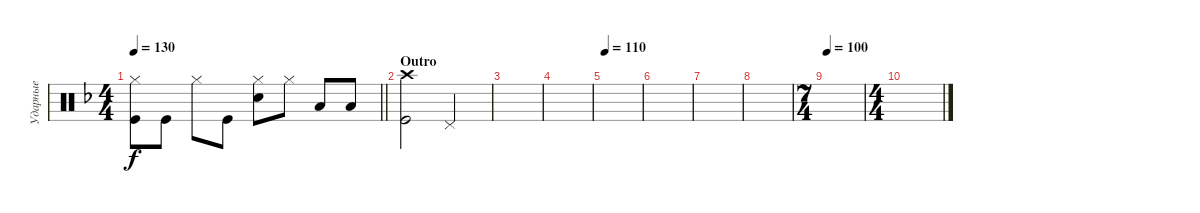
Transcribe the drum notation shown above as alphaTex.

\track ("Ударные" "Ударные") {instrument percussion}
\staff {score}
\articulation defaults
\ts (4 4)
\tempo 130
\clef neutral
\barLineRight lightlight
\ks dminor
("Kick (hit)" "Hi-Hat (closed)").8{dy f} "Kick (hit)".8 "Hi-Hat (closed)".8 "Kick (hit)".8 ("Snare (hit) 2" "Hi-Hat (closed)").8 "Hi-Hat (closed)".8 "Low Tom (hit)".8 "Low Tom (hit)".8 |
\section ("" "Outro")
("Kick (hit)" "Crash high (hit)").2 "Pedal Hi-Hat (hit)".2 |
|
|
\tempo 110
|
|
|
|
\ts (7 4)
\tempo 100
|
\ts (4 4)
